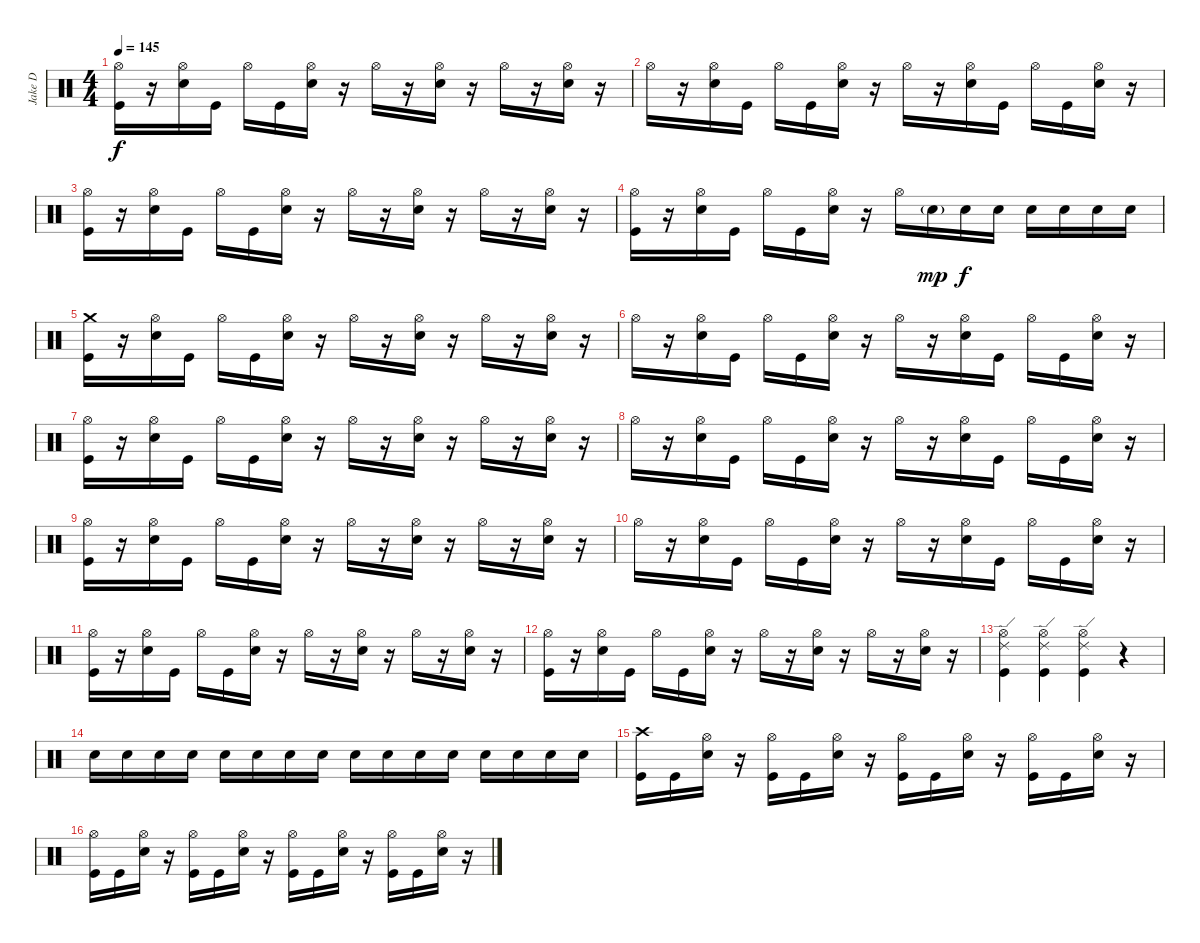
\track ("Jake D" "Jake D") {instrument percussion}
\staff {score}
\articulation defaults
\ts (4 4)
\tempo 145
\clef neutral
\ks c
("Hi-Hat (open)" "Kick (hit)").16{dy f} r.16 ("Hi-Hat (open)" "Electric Snare (hit)").16 "Kick (hit)".16 "Hi-Hat (open)".16 "Kick (hit)".16 ("Hi-Hat (open)" "Electric Snare (hit)").16 r.16 "Hi-Hat (open)".16 r.16 ("Hi-Hat (open)" "Electric Snare (hit)").16 r.16 "Hi-Hat (open)".16 r.16 ("Hi-Hat (open)" "Electric Snare (hit)").16 r.16 |
"Hi-Hat (open)".16 r.16 ("Hi-Hat (open)" "Electric Snare (hit)").16 "Kick (hit)".16 "Hi-Hat (open)".16 "Kick (hit)".16 ("Hi-Hat (open)" "Electric Snare (hit)").16 r.16 "Hi-Hat (open)".16 r.16 ("Hi-Hat (open)" "Electric Snare (hit)").16 "Kick (hit)".16 "Hi-Hat (open)".16 "Kick (hit)".16 ("Hi-Hat (open)" "Electric Snare (hit)").16 r.16 |
("Hi-Hat (open)" "Kick (hit)").16 r.16 ("Hi-Hat (open)" "Electric Snare (hit)").16 "Kick (hit)".16 "Hi-Hat (open)".16 "Kick (hit)".16 ("Hi-Hat (open)" "Electric Snare (hit)").16 r.16 "Hi-Hat (open)".16 r.16 ("Hi-Hat (open)" "Electric Snare (hit)").16 r.16 "Hi-Hat (open)".16 r.16 ("Hi-Hat (open)" "Electric Snare (hit)").16 r.16 |
("Hi-Hat (open)" "Kick (hit)").16 r.16 ("Hi-Hat (open)" "Electric Snare (hit)").16 "Kick (hit)".16 "Hi-Hat (open)".16 "Kick (hit)".16 ("Hi-Hat (open)" "Electric Snare (hit)").16 r.16 "Hi-Hat (open)".16 "Electric Snare (hit)"{g}.16{dy mp} "Electric Snare (hit)".16{dy f} "Electric Snare (hit)".16 "Electric Snare (hit)".16 "Electric Snare (hit)".16 "Electric Snare (hit)".16 "Electric Snare (hit)".16 |
("Crash medium (hit)" "Kick (hit)").16 r.16 ("Hi-Hat (open)" "Electric Snare (hit)").16 "Kick (hit)".16 "Hi-Hat (open)".16 "Kick (hit)".16 ("Hi-Hat (open)" "Electric Snare (hit)").16 r.16 "Hi-Hat (open)".16 r.16 ("Hi-Hat (open)" "Electric Snare (hit)").16 r.16 "Hi-Hat (open)".16 r.16 ("Hi-Hat (open)" "Electric Snare (hit)").16 r.16 |
"Hi-Hat (open)".16 r.16 ("Hi-Hat (open)" "Electric Snare (hit)").16 "Kick (hit)".16 "Hi-Hat (open)".16 "Kick (hit)".16 ("Hi-Hat (open)" "Electric Snare (hit)").16 r.16 "Hi-Hat (open)".16 r.16 ("Hi-Hat (open)" "Electric Snare (hit)").16 "Kick (hit)".16 "Hi-Hat (open)".16 "Kick (hit)".16 ("Hi-Hat (open)" "Electric Snare (hit)").16 r.16 |
("Hi-Hat (open)" "Kick (hit)").16 r.16 ("Hi-Hat (open)" "Electric Snare (hit)").16 "Kick (hit)".16 "Hi-Hat (open)".16 "Kick (hit)".16 ("Hi-Hat (open)" "Electric Snare (hit)").16 r.16 "Hi-Hat (open)".16 r.16 ("Hi-Hat (open)" "Electric Snare (hit)").16 r.16 "Hi-Hat (open)".16 r.16 ("Hi-Hat (open)" "Electric Snare (hit)").16 r.16 |
"Hi-Hat (open)".16 r.16 ("Hi-Hat (open)" "Electric Snare (hit)").16 "Kick (hit)".16 "Hi-Hat (open)".16 "Kick (hit)".16 ("Hi-Hat (open)" "Electric Snare (hit)").16 r.16 "Hi-Hat (open)".16 r.16 ("Hi-Hat (open)" "Electric Snare (hit)").16 "Kick (hit)".16 "Hi-Hat (open)".16 "Kick (hit)".16 ("Hi-Hat (open)" "Electric Snare (hit)").16 r.16 |
("Hi-Hat (open)" "Kick (hit)").16 r.16 ("Hi-Hat (open)" "Electric Snare (hit)").16 "Kick (hit)".16 "Hi-Hat (open)".16 "Kick (hit)".16 ("Hi-Hat (open)" "Electric Snare (hit)").16 r.16 "Hi-Hat (open)".16 r.16 ("Hi-Hat (open)" "Electric Snare (hit)").16 r.16 "Hi-Hat (open)".16 r.16 ("Hi-Hat (open)" "Electric Snare (hit)").16 r.16 |
"Hi-Hat (open)".16 r.16 ("Hi-Hat (open)" "Electric Snare (hit)").16 "Kick (hit)".16 "Hi-Hat (open)".16 "Kick (hit)".16 ("Hi-Hat (open)" "Electric Snare (hit)").16 r.16 "Hi-Hat (open)".16 r.16 ("Hi-Hat (open)" "Electric Snare (hit)").16 "Kick (hit)".16 "Hi-Hat (open)".16 "Kick (hit)".16 ("Hi-Hat (open)" "Electric Snare (hit)").16 r.16 |
("Hi-Hat (open)" "Kick (hit)").16 r.16 ("Hi-Hat (open)" "Electric Snare (hit)").16 "Kick (hit)".16 "Hi-Hat (open)".16 "Kick (hit)".16 ("Hi-Hat (open)" "Electric Snare (hit)").16 r.16 "Hi-Hat (open)".16 r.16 ("Hi-Hat (open)" "Electric Snare (hit)").16 r.16 "Hi-Hat (open)".16 r.16 ("Hi-Hat (open)" "Electric Snare (hit)").16 r.16 |
("Hi-Hat (open)" "Kick (hit)").16 r.16 ("Hi-Hat (open)" "Electric Snare (hit)").16 "Kick (hit)".16 "Hi-Hat (open)".16 "Kick (hit)".16 ("Hi-Hat (open)" "Electric Snare (hit)").16 r.16 "Hi-Hat (open)".16 r.16 ("Hi-Hat (open)" "Electric Snare (hit)").16 r.16 "Hi-Hat (open)".16 r.16 ("Hi-Hat (open)" "Electric Snare (hit)").16 r.16 |
("Ride (edge) 2" "Hi-Hat (open)" "Kick (hit)").4 ("Ride (edge) 2" "Hi-Hat (open)" "Kick (hit)").4 ("Ride (edge) 2" "Hi-Hat (open)" "Kick (hit)").4 r.4 |
"Electric Snare (hit)".16 "Electric Snare (hit)".16 "Electric Snare (hit)".16 "Electric Snare (hit)".16 "Electric Snare (hit)".16 "Electric Snare (hit)".16 "Electric Snare (hit)".16 "Electric Snare (hit)".16 "Electric Snare (hit)".16 "Electric Snare (hit)".16 "Electric Snare (hit)".16 "Electric Snare (hit)".16 "Electric Snare (hit)".16 "Electric Snare (hit)".16 "Electric Snare (hit)".16 "Electric Snare (hit)".16 |
("Crash high (hit)" "Kick (hit)").16 "Kick (hit)".16 ("Hi-Hat (open)" "Electric Snare (hit)").16 r.16 ("Hi-Hat (open)" "Kick (hit)").16 "Kick (hit)".16 ("Hi-Hat (open)" "Electric Snare (hit)").16 r.16 ("Hi-Hat (open)" "Kick (hit)").16 "Kick (hit)".16 ("Hi-Hat (open)" "Electric Snare (hit)").16 r.16 ("Hi-Hat (open)" "Kick (hit)").16 "Kick (hit)".16 ("Hi-Hat (open)" "Electric Snare (hit)").16 r.16 |
("Hi-Hat (open)" "Kick (hit)").16 "Kick (hit)".16 ("Hi-Hat (open)" "Electric Snare (hit)").16 r.16 ("Hi-Hat (open)" "Kick (hit)").16 "Kick (hit)".16 ("Hi-Hat (open)" "Electric Snare (hit)").16 r.16 ("Hi-Hat (open)" "Kick (hit)").16 "Kick (hit)".16 ("Hi-Hat (open)" "Electric Snare (hit)").16 r.16 ("Hi-Hat (open)" "Kick (hit)").16 "Kick (hit)".16 ("Hi-Hat (open)" "Electric Snare (hit)").16 r.16
